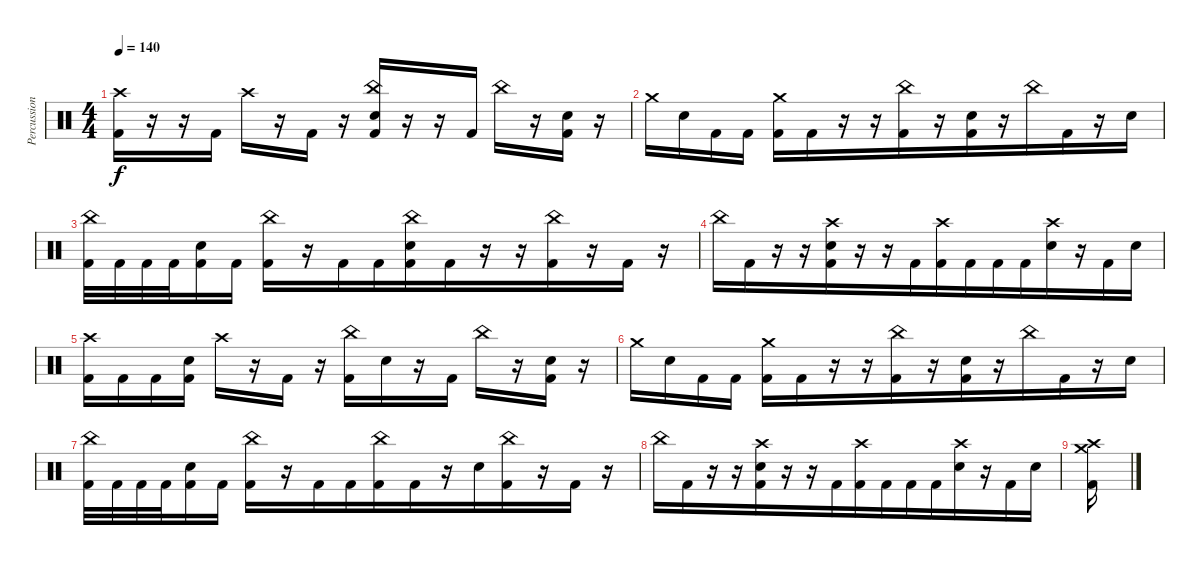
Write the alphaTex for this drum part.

\track ("Percussion" "Percussion") {instrument percussion}
\staff {score}
\articulation defaults
\ts (4 4)
\tempo 140
\clef neutral
\ks c
("Crash high (hit)" "Kick (hit) 2").16{dy f} r.16{beam merge} r.16{beam merge} "Kick (hit) 2".16 "Crash high (hit)".16{beam merge} r.16{beam merge} "Kick (hit) 2".16 r.16 ("China (hit)" "Electric Snare (hit)" "Kick (hit) 2").16{beam merge} r.16 r.16 "Kick (hit) 2".16 "China (hit)".16{beam merge} r.16{beam merge} ("Electric Snare (hit)" "Kick (hit) 2").16{beam merge} r.16 |
"Crash medium (hit)".16 "Electric Snare (hit)".16{beam merge} "Kick (hit) 2".16{beam merge} "Kick (hit) 2".16 ("Crash medium (hit)" "Kick (hit) 2").16{beam merge} "Kick (hit) 2".16{beam merge} r.16 r.16{beam merge} ("China (hit)" "Kick (hit) 2").16 r.16 ("Electric Snare (hit)" "Kick (hit) 2").16{beam merge} r.16 "China (hit)".16 "Kick (hit) 2".16{beam merge} r.16 "Electric Snare (hit)".16 |
("China (hit)" "Kick (hit) 2").32 "Kick (hit) 2".32{beam merge} "Kick (hit) 2".32 "Kick (hit) 2".32{beam merge} ("Electric Snare (hit)" "Kick (hit) 2").16{beam merge} "Kick (hit) 2".16 ("China (hit)" "Kick (hit) 2").16{beam merge} r.16{beam merge} "Kick (hit) 2".16{beam merge} "Kick (hit) 2".16{beam merge} ("China (hit)" "Electric Snare (hit)" "Kick (hit) 2").16{beam merge} "Kick (hit) 2".16{beam merge} r.16{beam merge} r.16{beam merge} ("China (hit)" "Kick (hit) 2").16 r.16{beam merge} "Kick (hit) 2".16 r.16 |
"China (hit)".16{beam merge} "Kick (hit) 2".16{beam merge} r.16 r.16 ("Crash high (hit)" "Electric Snare (hit)" "Kick (hit) 2").16 r.16{beam merge} r.16 "Kick (hit) 2".16{beam merge} ("Crash high (hit)" "Kick (hit) 2").16{beam merge} "Kick (hit) 2".16 "Kick (hit) 2".16{beam merge} "Kick (hit) 2".16{beam merge} ("Crash high (hit)" "Electric Snare (hit)").16{beam merge} r.16 "Kick (hit) 2".16{beam merge} "Electric Snare (hit)".16 |
("Crash high (hit)" "Kick (hit) 2").16 "Kick (hit) 2".16{beam merge} "Kick (hit) 2".16{beam merge} ("Electric Snare (hit)" "Kick (hit) 2").16 "Crash high (hit)".16{beam merge} r.16{beam merge} "Kick (hit) 2".16 r.16 ("China (hit)" "Kick (hit) 2").16{beam merge} "Electric Snare (hit)".16 r.16 "Kick (hit) 2".16 "China (hit)".16{beam merge} r.16{beam merge} ("Electric Snare (hit)" "Kick (hit) 2").16{beam merge} r.16 |
"Crash medium (hit)".16 "Electric Snare (hit)".16{beam merge} "Kick (hit) 2".16{beam merge} "Kick (hit) 2".16 ("Crash medium (hit)" "Kick (hit) 2").16{beam merge} "Kick (hit) 2".16{beam merge} r.16 r.16{beam merge} ("China (hit)" "Kick (hit) 2").16 r.16 ("Electric Snare (hit)" "Kick (hit) 2").16{beam merge} r.16 "China (hit)".16 "Kick (hit) 2".16{beam merge} r.16 "Electric Snare (hit)".16 |
("China (hit)" "Kick (hit) 2").32 "Kick (hit) 2".32{beam merge} "Kick (hit) 2".32 "Kick (hit) 2".32{beam merge} ("Electric Snare (hit)" "Kick (hit) 2").16{beam merge} "Kick (hit) 2".16 ("China (hit)" "Kick (hit) 2").16{beam merge} r.16{beam merge} "Kick (hit) 2".16{beam merge} "Kick (hit) 2".16{beam merge} ("China (hit)" "Kick (hit) 2").16{beam merge} "Kick (hit) 2".16{beam merge} r.16{beam merge} "Electric Snare (hit)".16{beam merge} ("China (hit)" "Kick (hit) 2").16 r.16{beam merge} "Kick (hit) 2".16 r.16 |
"China (hit)".16{beam merge} "Kick (hit) 2".16{beam merge} r.16 r.16 ("Crash high (hit)" "Electric Snare (hit)" "Kick (hit) 2").16 r.16{beam merge} r.16 "Kick (hit) 2".16{beam merge} ("Crash high (hit)" "Kick (hit) 2").16{beam merge} "Kick (hit) 2".16 "Kick (hit) 2".16{beam merge} "Kick (hit) 2".16{beam merge} ("Crash high (hit)" "Electric Snare (hit)").16{beam merge} r.16 "Kick (hit) 2".16{beam merge} "Electric Snare (hit)".16 |
("Crash high (hit)" "Crash medium (hit)" "Kick (hit) 2").16
